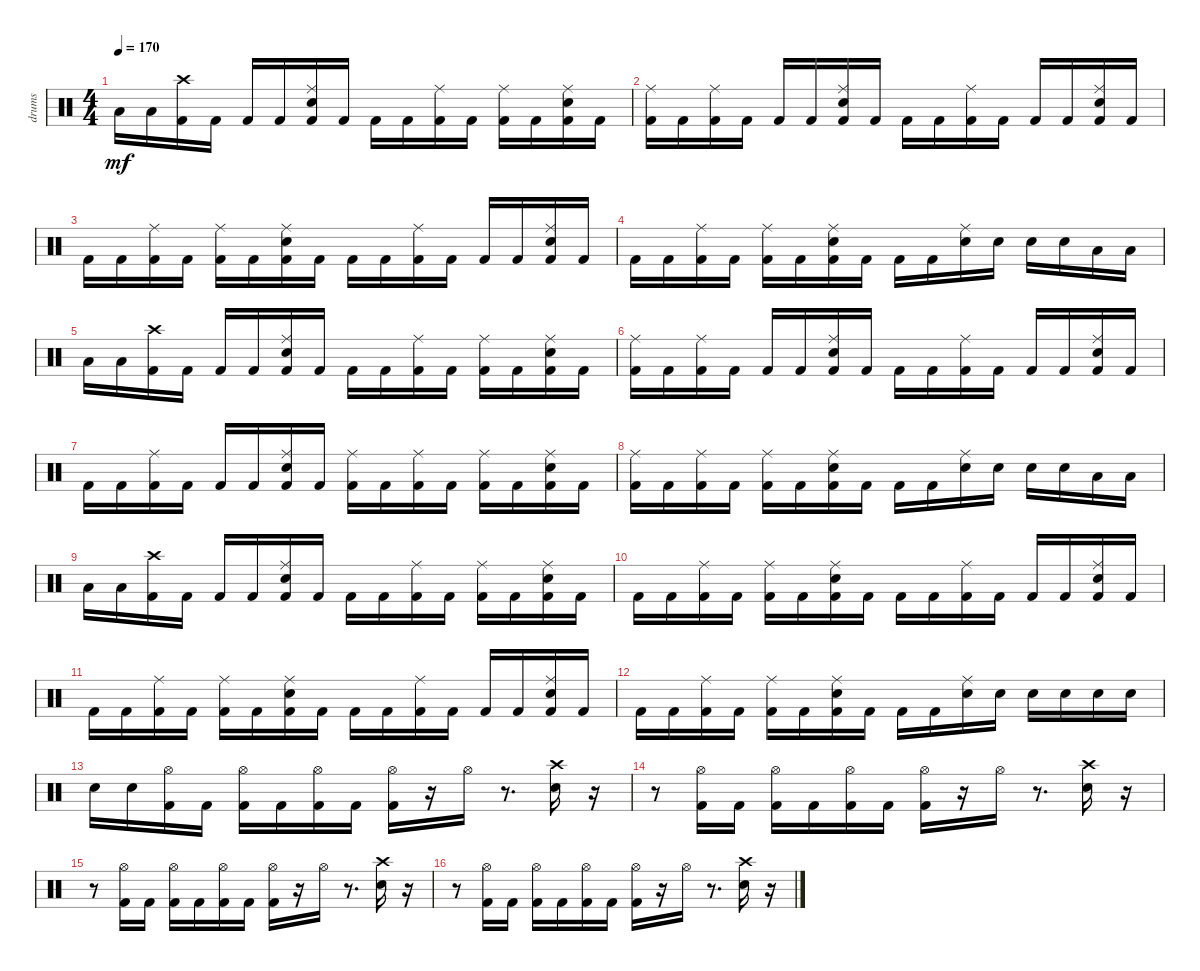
\track ("drums               " "drums     ") {instrument percussion}
\staff {score}
\articulation defaults
\ts (4 4)
\tempo 170
\clef neutral
\ks c "Low Floor Tom (hit)".16{dy mf} "Low Floor Tom (hit)".16
("Kick (hit) 2" "Crash high (hit)").16 "Kick (hit) 2".16 "Kick (hit) 2".16 "Kick (hit) 2".16 ("Kick (hit) 2" "Ride (middle)" "Snare (hit) 2").16 "Kick (hit) 2".16 "Kick (hit) 2".16 "Kick (hit) 2".16 ("Kick (hit) 2" "Ride (middle)").16 "Kick (hit) 2".16 ("Kick (hit) 2" "Ride (middle)").16 "Kick (hit) 2".16 ("Kick (hit) 2" "Ride (middle)" "Snare (hit) 2").16 "Kick (hit) 2".16 |
("Kick (hit) 2" "Ride (middle)").16 "Kick (hit) 2".16 ("Kick (hit) 2" "Ride (middle)").16 "Kick (hit) 2".16 "Kick (hit) 2".16 "Kick (hit) 2".16 ("Kick (hit) 2" "Ride (middle)" "Snare (hit) 2").16 "Kick (hit) 2".16 "Kick (hit) 2".16 "Kick (hit) 2".16 ("Kick (hit) 2" "Ride (middle)").16 "Kick (hit) 2".16 "Kick (hit) 2".16 "Kick (hit) 2".16 ("Kick (hit) 2" "Snare (hit) 2" "Ride (middle)").16 "Kick (hit) 2".16 |
"Kick (hit) 2".16 "Kick (hit) 2".16 ("Kick (hit) 2" "Ride (middle)").16 "Kick (hit) 2".16 ("Kick (hit) 2" "Ride (middle)").16 "Kick (hit) 2".16 ("Kick (hit) 2" "Ride (middle)" "Snare (hit) 2").16 "Kick (hit) 2".16 "Kick (hit) 2".16 "Kick (hit) 2".16 ("Kick (hit) 2" "Ride (middle)").16 "Kick (hit) 2".16 "Kick (hit) 2".16 "Kick (hit) 2".16 ("Kick (hit) 2" "Snare (hit) 2" "Ride (middle)").16 "Kick (hit) 2".16 |
"Kick (hit) 2".16 "Kick (hit) 2".16 ("Kick (hit) 2" "Ride (middle)").16 "Kick (hit) 2".16 ("Kick (hit) 2" "Ride (middle)").16 "Kick (hit) 2".16 ("Kick (hit) 2" "Ride (middle)" "Snare (hit) 2").16 "Kick (hit) 2".16 "Kick (hit) 2".16 "Kick (hit) 2".16 ("Ride (middle)" "Snare (hit) 2").16 "Snare (hit) 2".16 "Snare (hit) 2".16 "Snare (hit) 2".16 "Low Tom (hit)".16 "Low Tom (hit)".16 |
"Low Floor Tom (hit)".16 "Low Floor Tom (hit)".16 ("Kick (hit) 2" "Crash high (hit)").16 "Kick (hit) 2".16 "Kick (hit) 2".16 "Kick (hit) 2".16 ("Kick (hit) 2" "Ride (middle)" "Snare (hit) 2").16 "Kick (hit) 2".16 "Kick (hit) 2".16 "Kick (hit) 2".16 ("Kick (hit) 2" "Ride (middle)").16 "Kick (hit) 2".16 ("Kick (hit) 2" "Ride (middle)").16 "Kick (hit) 2".16 ("Kick (hit) 2" "Snare (hit) 2" "Ride (middle)").16 "Kick (hit) 2".16 |
("Kick (hit) 2" "Ride (middle)").16 "Kick (hit) 2".16 ("Kick (hit) 2" "Ride (middle)").16 "Kick (hit) 2".16 "Kick (hit) 2".16 "Kick (hit) 2".16 ("Kick (hit) 2" "Ride (middle)" "Snare (hit) 2").16 "Kick (hit) 2".16 "Kick (hit) 2".16 "Kick (hit) 2".16 ("Kick (hit) 2" "Ride (middle)").16 "Kick (hit) 2".16 "Kick (hit) 2".16 "Kick (hit) 2".16 ("Kick (hit) 2" "Snare (hit) 2" "Ride (middle)").16 "Kick (hit) 2".16 |
"Kick (hit) 2".16 "Kick (hit) 2".16 ("Kick (hit) 2" "Ride (middle)").16 "Kick (hit) 2".16 "Kick (hit) 2".16 "Kick (hit) 2".16 ("Kick (hit) 2" "Ride (middle)" "Snare (hit) 2").16 "Kick (hit) 2".16 ("Kick (hit) 2" "Ride (middle)").16 "Kick (hit) 2".16 ("Kick (hit) 2" "Ride (middle)").16 "Kick (hit) 2".16 ("Kick (hit) 2" "Ride (middle)").16 "Kick (hit) 2".16 ("Kick (hit) 2" "Snare (hit) 2" "Ride (middle)").16 "Kick (hit) 2".16 |
("Kick (hit) 2" "Ride (middle)").16 "Kick (hit) 2".16 ("Kick (hit) 2" "Ride (middle)").16 "Kick (hit) 2".16 ("Kick (hit) 2" "Ride (middle)").16 "Kick (hit) 2".16 ("Kick (hit) 2" "Ride (middle)" "Snare (hit) 2").16 "Kick (hit) 2".16 "Kick (hit) 2".16 "Kick (hit) 2".16 ("Ride (middle)" "Snare (hit) 2").16 "Snare (hit) 2".16 "Snare (hit) 2".16 "Snare (hit) 2".16 "Low Tom (hit)".16 "Low Tom (hit)".16 |
"Low Floor Tom (hit)".16 "Low Floor Tom (hit)".16 ("Kick (hit) 2" "Crash high (hit)").16 "Kick (hit) 2".16 "Kick (hit) 2".16 "Kick (hit) 2".16 ("Kick (hit) 2" "Ride (middle)" "Snare (hit) 2").16 "Kick (hit) 2".16 "Kick (hit) 2".16 "Kick (hit) 2".16 ("Kick (hit) 2" "Ride (middle)").16 "Kick (hit) 2".16 ("Kick (hit) 2" "Ride (middle)").16 "Kick (hit) 2".16 ("Kick (hit) 2" "Snare (hit) 2" "Ride (middle)").16 "Kick (hit) 2".16 |
"Kick (hit) 2".16 "Kick (hit) 2".16 ("Kick (hit) 2" "Ride (middle)").16 "Kick (hit) 2".16 ("Kick (hit) 2" "Ride (middle)").16 "Kick (hit) 2".16 ("Kick (hit) 2" "Ride (middle)" "Snare (hit) 2").16 "Kick (hit) 2".16 "Kick (hit) 2".16 "Kick (hit) 2".16 ("Kick (hit) 2" "Ride (middle)").16 "Kick (hit) 2".16 "Kick (hit) 2".16 "Kick (hit) 2".16 ("Kick (hit) 2" "Snare (hit) 2" "Ride (middle)").16 "Kick (hit) 2".16 |
"Kick (hit) 2".16 "Kick (hit) 2".16 ("Kick (hit) 2" "Ride (middle)").16 "Kick (hit) 2".16 ("Kick (hit) 2" "Ride (middle)").16 "Kick (hit) 2".16 ("Kick (hit) 2" "Ride (middle)" "Snare (hit) 2").16 "Kick (hit) 2".16 "Kick (hit) 2".16 "Kick (hit) 2".16 ("Kick (hit) 2" "Ride (middle)").16 "Kick (hit) 2".16 "Kick (hit) 2".16 "Kick (hit) 2".16 ("Kick (hit) 2" "Snare (hit) 2" "Ride (middle)").16 "Kick (hit) 2".16 |
"Kick (hit) 2".16 "Kick (hit) 2".16 ("Kick (hit) 2" "Ride (middle)").16 "Kick (hit) 2".16 ("Kick (hit) 2" "Ride (middle)").16 "Kick (hit) 2".16 ("Kick (hit) 2" "Ride (middle)" "Snare (hit) 2").16 "Kick (hit) 2".16 "Kick (hit) 2".16 "Kick (hit) 2".16 ("Ride (middle)" "Snare (hit) 2").16 "Snare (hit) 2".16 "Snare (hit) 2".16 "Snare (hit) 2".16 "Snare (hit) 2".16 "Snare (hit) 2".16 |
"Snare (hit) 2".16 "Snare (hit) 2".16 ("Kick (hit) 2" "Hi-Hat (open)").16 "Kick (hit) 2".16 ("Kick (hit) 2" "Hi-Hat (open)").16 "Kick (hit) 2".16 ("Kick (hit) 2" "Hi-Hat (open)").16 "Kick (hit) 2".16 ("Hi-Hat (open)" "Kick (hit) 2").16 r.16 "Hi-Hat (open)".16 r.8{d} ("Snare (hit) 2" "Crash high (hit)").16 r.16 |
r.8 ("Kick (hit) 2" "Hi-Hat (open)").16 "Kick (hit) 2".16 ("Kick (hit) 2" "Hi-Hat (open)").16 "Kick (hit) 2".16 ("Kick (hit) 2" "Hi-Hat (open)").16 "Kick (hit) 2".16 ("Kick (hit) 2" "Hi-Hat (open)").16 r.16 "Hi-Hat (open)".16 r.8{d} ("Snare (hit) 2" "Crash high (hit)").16 r.16 |
r.8 ("Kick (hit) 2" "Hi-Hat (open)").16 "Kick (hit) 2".16 ("Kick (hit) 2" "Hi-Hat (open)").16 "Kick (hit) 2".16 ("Kick (hit) 2" "Hi-Hat (open)").16 "Kick (hit) 2".16 ("Kick (hit) 2" "Hi-Hat (open)").16 r.16 "Hi-Hat (open)".16 r.8{d} ("Snare (hit) 2" "Crash high (hit)").16 r.16 |
r.8 ("Kick (hit) 2" "Hi-Hat (open)").16 "Kick (hit) 2".16 ("Kick (hit) 2" "Hi-Hat (open)").16 "Kick (hit) 2".16 ("Kick (hit) 2" "Hi-Hat (open)").16 "Kick (hit) 2".16 ("Kick (hit) 2" "Hi-Hat (open)").16 r.16 "Hi-Hat (open)".16 r.8{d} ("Snare (hit) 2" "Crash high (hit)").16 r.16
